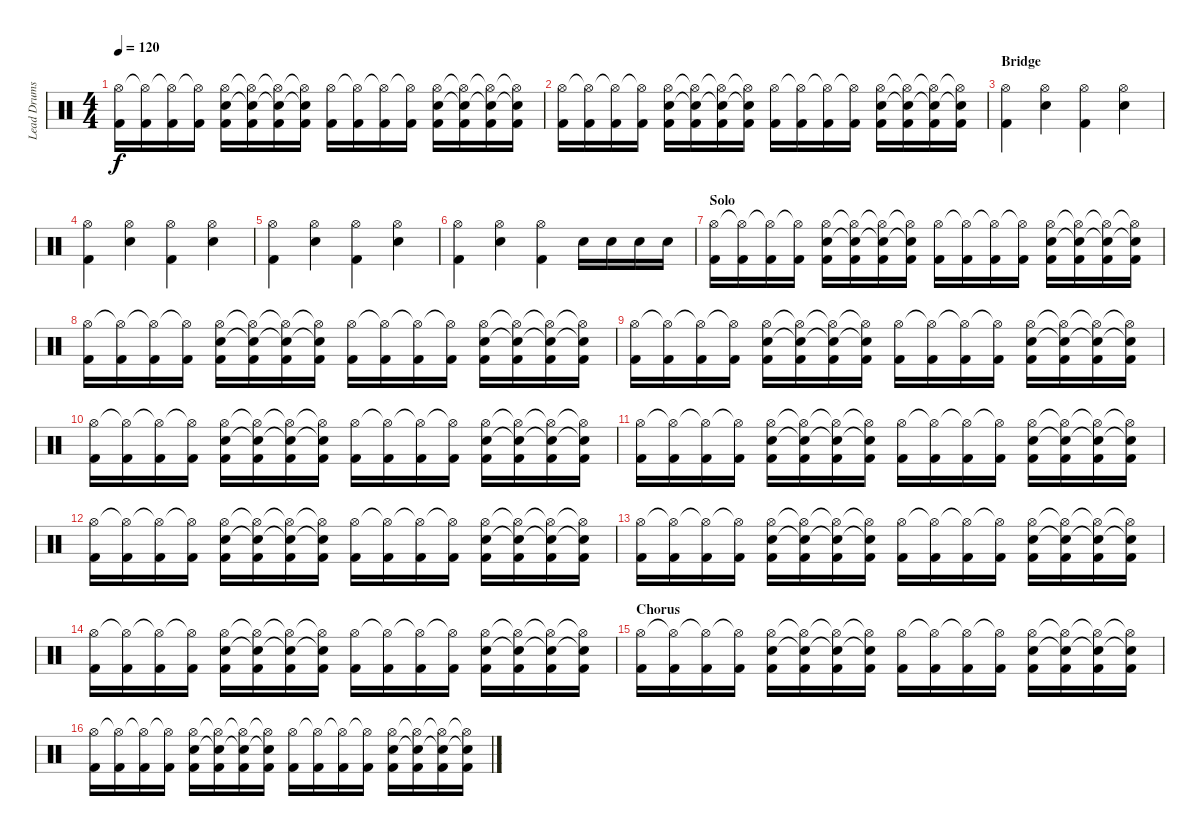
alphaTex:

\track ("Lead Drums" "Lead Drums") {instrument percussion}
\staff {score}
\articulation defaults
\ts (4 4)
\tempo 120
\clef neutral
\ks c
("Hi-Hat (open)" "Kick (hit) 2").16{dy f} ("Hi-Hat (open)"{t} "Kick (hit) 2").16 ("Hi-Hat (open)"{t} "Kick (hit) 2").16 ("Hi-Hat (open)"{t} "Kick (hit) 2").16 ("Hi-Hat (open)" "Snare (hit) 2" "Kick (hit) 2").16 ("Hi-Hat (open)"{t} "Snare (hit)"{t} "Kick (hit) 2").16 ("Hi-Hat (open)"{t} "Snare (hit)"{t} "Kick (hit) 2").16 ("Hi-Hat (open)"{t} "Snare (hit)"{t} "Kick (hit) 2").16 ("Hi-Hat (open)" "Kick (hit) 2").16 ("Hi-Hat (open)"{t} "Kick (hit) 2").16 ("Hi-Hat (open)"{t} "Kick (hit) 2").16 ("Hi-Hat (open)"{t} "Kick (hit) 2").16 ("Hi-Hat (open)" "Snare (hit) 2" "Kick (hit) 2").16 ("Hi-Hat (open)"{t} "Snare (hit)"{t} "Kick (hit) 2").16 ("Hi-Hat (open)"{t} "Snare (hit)"{t} "Kick (hit) 2").16 ("Hi-Hat (open)"{t} "Snare (hit)"{t} "Kick (hit) 2").16 |
("Hi-Hat (open)" "Kick (hit) 2").16 ("Hi-Hat (open)"{t} "Kick (hit) 2").16 ("Hi-Hat (open)"{t} "Kick (hit) 2").16 ("Hi-Hat (open)"{t} "Kick (hit) 2").16 ("Hi-Hat (open)" "Snare (hit) 2" "Kick (hit) 2").16 ("Hi-Hat (open)"{t} "Snare (hit)"{t} "Kick (hit) 2").16 ("Hi-Hat (open)"{t} "Snare (hit)"{t} "Kick (hit) 2").16 ("Hi-Hat (open)"{t} "Snare (hit)"{t} "Kick (hit) 2").16 ("Hi-Hat (open)" "Kick (hit) 2").16 ("Hi-Hat (open)"{t} "Kick (hit) 2").16 ("Hi-Hat (open)"{t} "Kick (hit) 2").16 ("Hi-Hat (open)"{t} "Kick (hit) 2").16 ("Hi-Hat (open)" "Snare (hit) 2" "Kick (hit) 2").16 ("Hi-Hat (open)"{t} "Snare (hit)"{t} "Kick (hit) 2").16 ("Hi-Hat (open)"{t} "Snare (hit)"{t} "Kick (hit) 2").16 ("Hi-Hat (open)"{t} "Snare (hit)"{t} "Kick (hit) 2").16 |
\section ("" "Bridge")
("Hi-Hat (open)" "Kick (hit) 2").4 ("Hi-Hat (open)" "Snare (hit) 2").4 ("Hi-Hat (open)" "Kick (hit) 2").4 ("Hi-Hat (open)" "Snare (hit) 2").4 |
("Hi-Hat (open)" "Kick (hit) 2").4 ("Hi-Hat (open)" "Snare (hit) 2").4 ("Hi-Hat (open)" "Kick (hit) 2").4 ("Hi-Hat (open)" "Snare (hit) 2").4 |
("Hi-Hat (open)" "Kick (hit) 2").4 ("Hi-Hat (open)" "Snare (hit) 2").4 ("Hi-Hat (open)" "Kick (hit) 2").4 ("Hi-Hat (open)" "Snare (hit) 2").4 |
("Hi-Hat (open)" "Kick (hit) 2").4 ("Hi-Hat (open)" "Snare (hit) 2").4 ("Hi-Hat (open)" "Kick (hit) 2").4 "Snare (hit) 2".16 "Snare (hit) 2".16 "Snare (hit) 2".16 "Snare (hit) 2".16 |
\section ("" "Solo")
("Hi-Hat (open)" "Kick (hit) 2").16 ("Hi-Hat (open)"{t} "Kick (hit) 2").16 ("Hi-Hat (open)"{t} "Kick (hit) 2").16 ("Hi-Hat (open)"{t} "Kick (hit) 2").16 ("Hi-Hat (open)" "Snare (hit) 2" "Kick (hit) 2").16 ("Hi-Hat (open)"{t} "Snare (hit)"{t} "Kick (hit) 2").16 ("Hi-Hat (open)"{t} "Snare (hit)"{t} "Kick (hit) 2").16 ("Hi-Hat (open)"{t} "Snare (hit)"{t} "Kick (hit) 2").16 ("Hi-Hat (open)" "Kick (hit) 2").16 ("Hi-Hat (open)"{t} "Kick (hit) 2").16 ("Hi-Hat (open)"{t} "Kick (hit) 2").16 ("Hi-Hat (open)"{t} "Kick (hit) 2").16 ("Hi-Hat (open)" "Snare (hit) 2" "Kick (hit) 2").16 ("Hi-Hat (open)"{t} "Snare (hit)"{t} "Kick (hit) 2").16 ("Hi-Hat (open)"{t} "Snare (hit)"{t} "Kick (hit) 2").16 ("Hi-Hat (open)"{t} "Snare (hit)"{t} "Kick (hit) 2").16 |
("Hi-Hat (open)" "Kick (hit) 2").16 ("Hi-Hat (open)"{t} "Kick (hit) 2").16 ("Hi-Hat (open)"{t} "Kick (hit) 2").16 ("Hi-Hat (open)"{t} "Kick (hit) 2").16 ("Hi-Hat (open)" "Snare (hit) 2" "Kick (hit) 2").16 ("Hi-Hat (open)"{t} "Snare (hit)"{t} "Kick (hit) 2").16 ("Hi-Hat (open)"{t} "Snare (hit)"{t} "Kick (hit) 2").16 ("Hi-Hat (open)"{t} "Snare (hit)"{t} "Kick (hit) 2").16 ("Hi-Hat (open)" "Kick (hit) 2").16 ("Hi-Hat (open)"{t} "Kick (hit) 2").16 ("Hi-Hat (open)"{t} "Kick (hit) 2").16 ("Hi-Hat (open)"{t} "Kick (hit) 2").16 ("Hi-Hat (open)" "Snare (hit) 2" "Kick (hit) 2").16 ("Hi-Hat (open)"{t} "Snare (hit)"{t} "Kick (hit) 2").16 ("Hi-Hat (open)"{t} "Snare (hit)"{t} "Kick (hit) 2").16 ("Hi-Hat (open)"{t} "Snare (hit)"{t} "Kick (hit) 2").16 |
("Hi-Hat (open)" "Kick (hit) 2").16 ("Hi-Hat (open)"{t} "Kick (hit) 2").16 ("Hi-Hat (open)"{t} "Kick (hit) 2").16 ("Hi-Hat (open)"{t} "Kick (hit) 2").16 ("Hi-Hat (open)" "Snare (hit) 2" "Kick (hit) 2").16 ("Hi-Hat (open)"{t} "Snare (hit)"{t} "Kick (hit) 2").16 ("Hi-Hat (open)"{t} "Snare (hit)"{t} "Kick (hit) 2").16 ("Hi-Hat (open)"{t} "Snare (hit)"{t} "Kick (hit) 2").16 ("Hi-Hat (open)" "Kick (hit) 2").16 ("Hi-Hat (open)"{t} "Kick (hit) 2").16 ("Hi-Hat (open)"{t} "Kick (hit) 2").16 ("Hi-Hat (open)"{t} "Kick (hit) 2").16 ("Hi-Hat (open)" "Snare (hit) 2" "Kick (hit) 2").16 ("Hi-Hat (open)"{t} "Snare (hit)"{t} "Kick (hit) 2").16 ("Hi-Hat (open)"{t} "Snare (hit)"{t} "Kick (hit) 2").16 ("Hi-Hat (open)"{t} "Snare (hit)"{t} "Kick (hit) 2").16 |
("Hi-Hat (open)" "Kick (hit) 2").16 ("Hi-Hat (open)"{t} "Kick (hit) 2").16 ("Hi-Hat (open)"{t} "Kick (hit) 2").16 ("Hi-Hat (open)"{t} "Kick (hit) 2").16 ("Hi-Hat (open)" "Snare (hit) 2" "Kick (hit) 2").16 ("Hi-Hat (open)"{t} "Snare (hit)"{t} "Kick (hit) 2").16 ("Hi-Hat (open)"{t} "Snare (hit)"{t} "Kick (hit) 2").16 ("Hi-Hat (open)"{t} "Snare (hit)"{t} "Kick (hit) 2").16 ("Hi-Hat (open)" "Kick (hit) 2").16 ("Hi-Hat (open)"{t} "Kick (hit) 2").16 ("Hi-Hat (open)"{t} "Kick (hit) 2").16 ("Hi-Hat (open)"{t} "Kick (hit) 2").16 ("Hi-Hat (open)" "Snare (hit) 2" "Kick (hit) 2").16 ("Hi-Hat (open)"{t} "Snare (hit)"{t} "Kick (hit) 2").16 ("Hi-Hat (open)"{t} "Snare (hit)"{t} "Kick (hit) 2").16 ("Hi-Hat (open)"{t} "Snare (hit)"{t} "Kick (hit) 2").16 |
("Hi-Hat (open)" "Kick (hit) 2").16 ("Hi-Hat (open)"{t} "Kick (hit) 2").16 ("Hi-Hat (open)"{t} "Kick (hit) 2").16 ("Hi-Hat (open)"{t} "Kick (hit) 2").16 ("Hi-Hat (open)" "Snare (hit) 2" "Kick (hit) 2").16 ("Hi-Hat (open)"{t} "Snare (hit)"{t} "Kick (hit) 2").16 ("Hi-Hat (open)"{t} "Snare (hit)"{t} "Kick (hit) 2").16 ("Hi-Hat (open)"{t} "Snare (hit)"{t} "Kick (hit) 2").16 ("Hi-Hat (open)" "Kick (hit) 2").16 ("Hi-Hat (open)"{t} "Kick (hit) 2").16 ("Hi-Hat (open)"{t} "Kick (hit) 2").16 ("Hi-Hat (open)"{t} "Kick (hit) 2").16 ("Hi-Hat (open)" "Snare (hit) 2" "Kick (hit) 2").16 ("Hi-Hat (open)"{t} "Snare (hit)"{t} "Kick (hit) 2").16 ("Hi-Hat (open)"{t} "Snare (hit)"{t} "Kick (hit) 2").16 ("Hi-Hat (open)"{t} "Snare (hit)"{t} "Kick (hit) 2").16 |
("Hi-Hat (open)" "Kick (hit) 2").16 ("Hi-Hat (open)"{t} "Kick (hit) 2").16 ("Hi-Hat (open)"{t} "Kick (hit) 2").16 ("Hi-Hat (open)"{t} "Kick (hit) 2").16 ("Hi-Hat (open)" "Snare (hit) 2" "Kick (hit) 2").16 ("Hi-Hat (open)"{t} "Snare (hit)"{t} "Kick (hit) 2").16 ("Hi-Hat (open)"{t} "Snare (hit)"{t} "Kick (hit) 2").16 ("Hi-Hat (open)"{t} "Snare (hit)"{t} "Kick (hit) 2").16 ("Hi-Hat (open)" "Kick (hit) 2").16 ("Hi-Hat (open)"{t} "Kick (hit) 2").16 ("Hi-Hat (open)"{t} "Kick (hit) 2").16 ("Hi-Hat (open)"{t} "Kick (hit) 2").16 ("Hi-Hat (open)" "Snare (hit) 2" "Kick (hit) 2").16 ("Hi-Hat (open)"{t} "Snare (hit)"{t} "Kick (hit) 2").16 ("Hi-Hat (open)"{t} "Snare (hit)"{t} "Kick (hit) 2").16 ("Hi-Hat (open)"{t} "Snare (hit)"{t} "Kick (hit) 2").16 |
("Hi-Hat (open)" "Kick (hit) 2").16 ("Hi-Hat (open)"{t} "Kick (hit) 2").16 ("Hi-Hat (open)"{t} "Kick (hit) 2").16 ("Hi-Hat (open)"{t} "Kick (hit) 2").16 ("Hi-Hat (open)" "Snare (hit) 2" "Kick (hit) 2").16 ("Hi-Hat (open)"{t} "Snare (hit)"{t} "Kick (hit) 2").16 ("Hi-Hat (open)"{t} "Snare (hit)"{t} "Kick (hit) 2").16 ("Hi-Hat (open)"{t} "Snare (hit)"{t} "Kick (hit) 2").16 ("Hi-Hat (open)" "Kick (hit) 2").16 ("Hi-Hat (open)"{t} "Kick (hit) 2").16 ("Hi-Hat (open)"{t} "Kick (hit) 2").16 ("Hi-Hat (open)"{t} "Kick (hit) 2").16 ("Hi-Hat (open)" "Snare (hit) 2" "Kick (hit) 2").16 ("Hi-Hat (open)"{t} "Snare (hit)"{t} "Kick (hit) 2").16 ("Hi-Hat (open)"{t} "Snare (hit)"{t} "Kick (hit) 2").16 ("Hi-Hat (open)"{t} "Snare (hit)"{t} "Kick (hit) 2").16 |
("Hi-Hat (open)" "Kick (hit) 2").16 ("Hi-Hat (open)"{t} "Kick (hit) 2").16 ("Hi-Hat (open)"{t} "Kick (hit) 2").16 ("Hi-Hat (open)"{t} "Kick (hit) 2").16 ("Hi-Hat (open)" "Snare (hit) 2" "Kick (hit) 2").16 ("Hi-Hat (open)"{t} "Snare (hit)"{t} "Kick (hit) 2").16 ("Hi-Hat (open)"{t} "Snare (hit)"{t} "Kick (hit) 2").16 ("Hi-Hat (open)"{t} "Snare (hit)"{t} "Kick (hit) 2").16 ("Hi-Hat (open)" "Kick (hit) 2").16 ("Hi-Hat (open)"{t} "Kick (hit) 2").16 ("Hi-Hat (open)"{t} "Kick (hit) 2").16 ("Hi-Hat (open)"{t} "Kick (hit) 2").16 ("Hi-Hat (open)" "Snare (hit) 2" "Kick (hit) 2").16 ("Hi-Hat (open)"{t} "Snare (hit)"{t} "Kick (hit) 2").16 ("Hi-Hat (open)"{t} "Snare (hit)"{t} "Kick (hit) 2").16 ("Hi-Hat (open)"{t} "Snare (hit)"{t} "Kick (hit) 2").16 |
\section ("" "Chorus")
("Hi-Hat (open)" "Kick (hit) 2").16 ("Hi-Hat (open)"{t} "Kick (hit) 2").16 ("Hi-Hat (open)"{t} "Kick (hit) 2").16 ("Hi-Hat (open)"{t} "Kick (hit) 2").16 ("Hi-Hat (open)" "Snare (hit) 2" "Kick (hit) 2").16 ("Hi-Hat (open)"{t} "Snare (hit)"{t} "Kick (hit) 2").16 ("Hi-Hat (open)"{t} "Snare (hit)"{t} "Kick (hit) 2").16 ("Hi-Hat (open)"{t} "Snare (hit)"{t} "Kick (hit) 2").16 ("Hi-Hat (open)" "Kick (hit) 2").16 ("Hi-Hat (open)"{t} "Kick (hit) 2").16 ("Hi-Hat (open)"{t} "Kick (hit) 2").16 ("Hi-Hat (open)"{t} "Kick (hit) 2").16 ("Hi-Hat (open)" "Snare (hit) 2" "Kick (hit) 2").16 ("Hi-Hat (open)"{t} "Snare (hit)"{t} "Kick (hit) 2").16 ("Hi-Hat (open)"{t} "Snare (hit)"{t} "Kick (hit) 2").16 ("Hi-Hat (open)"{t} "Snare (hit)"{t} "Kick (hit) 2").16 |
("Hi-Hat (open)" "Kick (hit) 2").16 ("Hi-Hat (open)"{t} "Kick (hit) 2").16 ("Hi-Hat (open)"{t} "Kick (hit) 2").16 ("Hi-Hat (open)"{t} "Kick (hit) 2").16 ("Hi-Hat (open)" "Snare (hit) 2" "Kick (hit) 2").16 ("Hi-Hat (open)"{t} "Snare (hit)"{t} "Kick (hit) 2").16 ("Hi-Hat (open)"{t} "Snare (hit)"{t} "Kick (hit) 2").16 ("Hi-Hat (open)"{t} "Snare (hit)"{t} "Kick (hit) 2").16 ("Hi-Hat (open)" "Kick (hit) 2").16 ("Hi-Hat (open)"{t} "Kick (hit) 2").16 ("Hi-Hat (open)"{t} "Kick (hit) 2").16 ("Hi-Hat (open)"{t} "Kick (hit) 2").16 ("Hi-Hat (open)" "Snare (hit) 2" "Kick (hit) 2").16 ("Hi-Hat (open)"{t} "Snare (hit)"{t} "Kick (hit) 2").16 ("Hi-Hat (open)"{t} "Snare (hit)"{t} "Kick (hit) 2").16 ("Hi-Hat (open)"{t} "Snare (hit)"{t} "Kick (hit) 2").16
